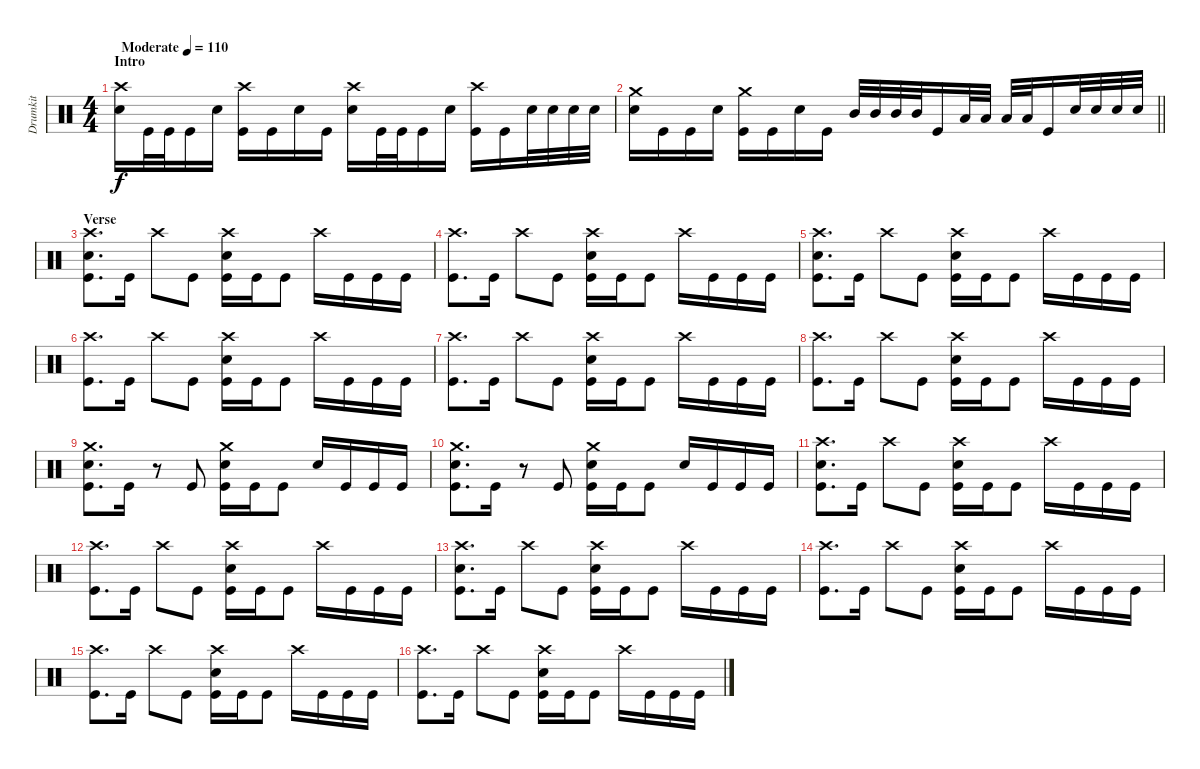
\track ("Drumkit" "Drumkit") {instrument percussion}
\staff {score}
\articulation defaults
\ts (4 4)
\section ("" "Intro")
\tempo (110 "Moderate")
\clef neutral
\ks c
("Crash high (hit)" "Snare (hit) 2").16{dy f} "Kick (hit)".32 "Kick (hit)".32 "Kick (hit)".16 "Snare (hit) 2".16 ("Crash high (hit)" "Kick (hit)").16 "Kick (hit)".16 "Snare (hit) 2".16 "Kick (hit)".16 ("Crash high (hit)" "Snare (hit) 2").16 "Kick (hit)".32 "Kick (hit)".32 "Kick (hit)".16 "Snare (hit) 2".16 ("Crash high (hit)" "Kick (hit)").16 "Kick (hit)".16 "Snare (hit) 2".32 "Snare (hit) 2".32 "Snare (hit) 2".32 "Snare (hit) 2".32 |
\barLineRight lightlight
("Crash medium (hit)" "Snare (hit) 2").16 "Kick (hit)".16 "Kick (hit)".16 "Snare (hit) 2".16 ("Crash medium (hit)" "Kick (hit)").16 "Kick (hit)".16 "Snare (hit) 2".16 "Kick (hit)".16 "Mid Tom (hit)".32 "Mid Tom (hit)".32 "Mid Tom (hit)".32 "Mid Tom (hit)".32 "Kick (hit)".16 "Low Tom (hit)".32 "Low Tom (hit)".32 "Low Tom (hit)".32 "Low Tom (hit)".32 "Kick (hit)".16 "Snare (hit) 2".32 "Snare (hit) 2".32 "Snare (hit) 2".32 "Snare (hit) 2".32 |
\section ("" "Verse")
("Crash high (hit)" "Snare (hit) 2" "Kick (hit)").8{d} "Kick (hit)".16 "Crash high (hit)".8 "Kick (hit)".8 ("Crash high (hit)" "Snare (hit) 2" "Kick (hit)").16 "Kick (hit)".16 "Kick (hit)".8 "Crash high (hit)".16 "Kick (hit)".16 "Kick (hit)".16 "Kick (hit)".16 |
("Crash high (hit)" "Kick (hit)").8{d} "Kick (hit)".16 "Crash high (hit)".8 "Kick (hit)".8 ("Crash high (hit)" "Snare (hit) 2" "Kick (hit)").16 "Kick (hit)".16 "Kick (hit)".8 "Crash high (hit)".16 "Kick (hit)".16 "Kick (hit)".16 "Kick (hit)".16 |
("Crash high (hit)" "Snare (hit) 2" "Kick (hit)").8{d} "Kick (hit)".16 "Crash high (hit)".8 "Kick (hit)".8 ("Crash high (hit)" "Snare (hit) 2" "Kick (hit)").16 "Kick (hit)".16 "Kick (hit)".8 "Crash high (hit)".16 "Kick (hit)".16 "Kick (hit)".16 "Kick (hit)".16 |
("Crash high (hit)" "Kick (hit)").8{d} "Kick (hit)".16 "Crash high (hit)".8 "Kick (hit)".8 ("Crash high (hit)" "Snare (hit) 2" "Kick (hit)").16 "Kick (hit)".16 "Kick (hit)".8 "Crash high (hit)".16 "Kick (hit)".16 "Kick (hit)".16 "Kick (hit)".16 |
("Crash high (hit)" "Kick (hit)").8{d} "Kick (hit)".16 "Crash high (hit)".8 "Kick (hit)".8 ("Crash high (hit)" "Snare (hit) 2" "Kick (hit)").16 "Kick (hit)".16 "Kick (hit)".8 "Crash high (hit)".16 "Kick (hit)".16 "Kick (hit)".16 "Kick (hit)".16 |
("Crash high (hit)" "Kick (hit)").8{d} "Kick (hit)".16 "Crash high (hit)".8 "Kick (hit)".8 ("Crash high (hit)" "Snare (hit) 2" "Kick (hit)").16 "Kick (hit)".16 "Kick (hit)".8 "Crash high (hit)".16 "Kick (hit)".16 "Kick (hit)".16 "Kick (hit)".16 |
("Crash medium (hit)" "Snare (hit) 2" "Kick (hit)").8{d} "Kick (hit)".16 r.8 "Kick (hit)".8 ("Crash medium (hit)" "Snare (hit) 2" "Kick (hit)").16 "Kick (hit)".16 "Kick (hit)".8 "Snare (hit) 2".16 "Kick (hit)".16 "Kick (hit)".16 "Kick (hit)".16 |
("Crash medium (hit)" "Snare (hit) 2" "Kick (hit)").8{d} "Kick (hit)".16 r.8 "Kick (hit)".8 ("Crash medium (hit)" "Snare (hit) 2" "Kick (hit)").16 "Kick (hit)".16 "Kick (hit)".8 "Snare (hit) 2".16 "Kick (hit)".16 "Kick (hit)".16 "Kick (hit)".16 |
("Crash high (hit)" "Snare (hit) 2" "Kick (hit)").8{d} "Kick (hit)".16 "Crash high (hit)".8 "Kick (hit)".8 ("Crash high (hit)" "Snare (hit) 2" "Kick (hit)").16 "Kick (hit)".16 "Kick (hit)".8 "Crash high (hit)".16 "Kick (hit)".16 "Kick (hit)".16 "Kick (hit)".16 |
("Crash high (hit)" "Kick (hit)").8{d} "Kick (hit)".16 "Crash high (hit)".8 "Kick (hit)".8 ("Crash high (hit)" "Snare (hit) 2" "Kick (hit)").16 "Kick (hit)".16 "Kick (hit)".8 "Crash high (hit)".16 "Kick (hit)".16 "Kick (hit)".16 "Kick (hit)".16 |
("Crash high (hit)" "Snare (hit) 2" "Kick (hit)").8{d} "Kick (hit)".16 "Crash high (hit)".8 "Kick (hit)".8 ("Crash high (hit)" "Snare (hit) 2" "Kick (hit)").16 "Kick (hit)".16 "Kick (hit)".8 "Crash high (hit)".16 "Kick (hit)".16 "Kick (hit)".16 "Kick (hit)".16 |
("Crash high (hit)" "Kick (hit)").8{d} "Kick (hit)".16 "Crash high (hit)".8 "Kick (hit)".8 ("Crash high (hit)" "Snare (hit) 2" "Kick (hit)").16 "Kick (hit)".16 "Kick (hit)".8 "Crash high (hit)".16 "Kick (hit)".16 "Kick (hit)".16 "Kick (hit)".16 |
("Crash high (hit)" "Kick (hit)").8{d} "Kick (hit)".16 "Crash high (hit)".8 "Kick (hit)".8 ("Crash high (hit)" "Snare (hit) 2" "Kick (hit)").16 "Kick (hit)".16 "Kick (hit)".8 "Crash high (hit)".16 "Kick (hit)".16 "Kick (hit)".16 "Kick (hit)".16 |
("Crash high (hit)" "Kick (hit)").8{d} "Kick (hit)".16 "Crash high (hit)".8 "Kick (hit)".8 ("Crash high (hit)" "Snare (hit) 2" "Kick (hit)").16 "Kick (hit)".16 "Kick (hit)".8 "Crash high (hit)".16 "Kick (hit)".16 "Kick (hit)".16 "Kick (hit)".16
